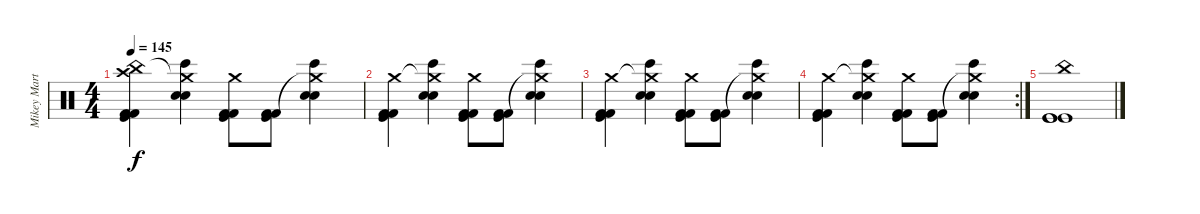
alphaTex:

\track ("Mikey Martin" "Mikey Mart") {instrument percussion}
\staff {score}
\articulation defaults
\ts (4 4)
\tempo 145
\clef neutral
\ks c
("China (hit)" "Crash high (hit)" "Kick (hit)" "Kick (hit) 2" "Kick (hit) 2").4{dy f} ("Crash medium (hit)"{t} "Bongo High (hit)" "Snare (hit) 2" "Electric Snare (hit)").4 ("Crash medium (hit)" "Kick (hit)" "Kick (hit) 2" "Kick (hit) 2").8 ("Kick (hit)" "Kick (hit) 2" "Kick (hit) 2").8 ("Crash medium (hit)"{t} "Bongo High (hit)" "Snare (hit) 2" "Electric Snare (hit)").4 |
("Crash medium (hit)" "Kick (hit)" "Kick (hit) 2" "Kick (hit) 2").4 ("Crash medium (hit)"{t} "Bongo High (hit)" "Snare (hit) 2" "Electric Snare (hit)").4 ("Crash medium (hit)" "Kick (hit)" "Kick (hit) 2" "Kick (hit) 2").8 ("Kick (hit)" "Kick (hit) 2" "Kick (hit) 2").8 ("Crash medium (hit)"{t} "Bongo High (hit)" "Snare (hit) 2" "Electric Snare (hit)").4 |
("Crash medium (hit)" "Kick (hit)" "Kick (hit) 2" "Kick (hit) 2").4 ("Crash medium (hit)"{t} "Bongo High (hit)" "Snare (hit) 2" "Electric Snare (hit)").4 ("Crash medium (hit)" "Kick (hit)" "Kick (hit) 2" "Kick (hit) 2").8 ("Kick (hit)" "Kick (hit) 2" "Kick (hit) 2").8 ("Crash medium (hit)"{t} "Bongo High (hit)" "Snare (hit) 2" "Electric Snare (hit)").4 |
\rc 2
("Crash medium (hit)" "Kick (hit)" "Kick (hit) 2" "Kick (hit) 2").4 ("Crash medium (hit)"{t} "Bongo High (hit)" "Snare (hit) 2" "Electric Snare (hit)").4 ("Crash medium (hit)" "Kick (hit)" "Kick (hit) 2" "Kick (hit) 2").8 ("Kick (hit)" "Kick (hit) 2" "Kick (hit) 2").8 ("Crash medium (hit)"{t} "Bongo High (hit)" "Snare (hit) 2" "Electric Snare (hit)").4 |
("China (hit)" "Kick (hit)" "Kick (hit)" "Kick (hit)").1
